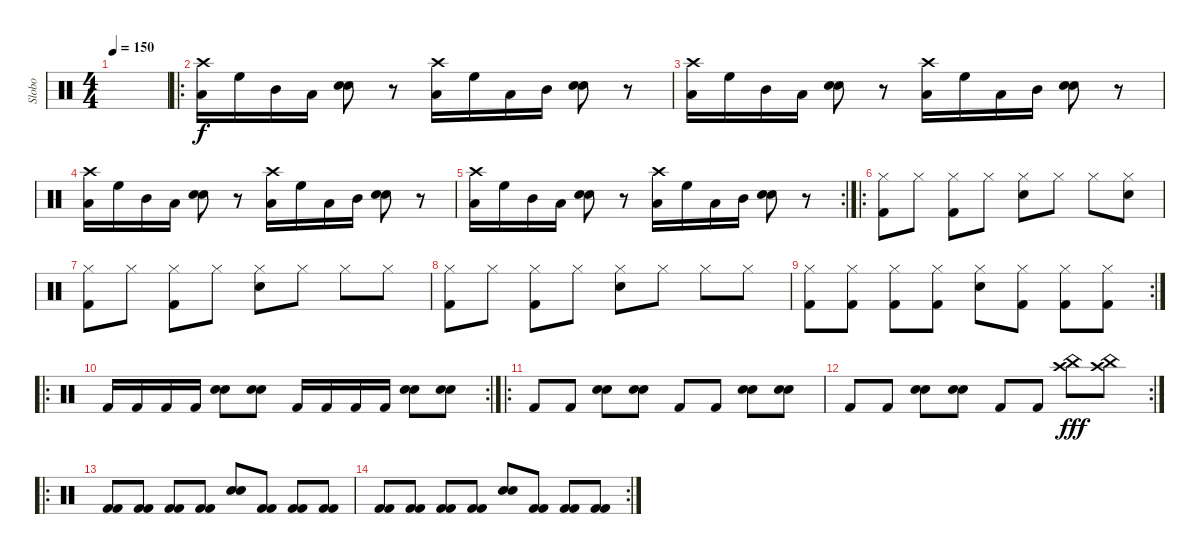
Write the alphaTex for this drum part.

\track ("Slobo" "Slobo") {instrument percussion}
\staff {score}
\articulation defaults
\ts (4 4)
\tempo 150
\clef neutral
\ks c
|
\ro
("Crash high (hit)" "Low Floor Tom (hit)").16{dy f} "High Floor Tom (hit)".16 "Mid Tom (hit)".16 "Low Tom (hit)".16 ("Snare (hit) 2" "Snare (hit) 2").8{bd 480} r.8 ("Crash high (hit)" "Low Floor Tom (hit)").16 "High Floor Tom (hit)".16 "Low Tom (hit)".16 "Mid Tom (hit)".16 ("Snare (hit) 2" "Snare (hit) 2").8{bd 480} r.8 |
("Crash high (hit)" "Low Floor Tom (hit)").16 "High Floor Tom (hit)".16 "Mid Tom (hit)".16 "Low Tom (hit)".16 ("Snare (hit) 2" "Snare (hit) 2").8{bd 480} r.8 ("Crash high (hit)" "Low Floor Tom (hit)").16 "High Floor Tom (hit)".16 "Low Tom (hit)".16 "Mid Tom (hit)".16 ("Snare (hit) 2" "Snare (hit) 2").8{bd 480} r.8 |
("Crash high (hit)" "Low Floor Tom (hit)").16 "High Floor Tom (hit)".16 "Mid Tom (hit)".16 "Low Tom (hit)".16 ("Snare (hit) 2" "Snare (hit) 2").8{bd 480} r.8 ("Crash high (hit)" "Low Floor Tom (hit)").16 "High Floor Tom (hit)".16 "Low Tom (hit)".16 "Mid Tom (hit)".16 ("Snare (hit) 2" "Snare (hit) 2").8{bd 480} r.8 |
\rc 2
("Crash high (hit)" "Low Floor Tom (hit)").16 "High Floor Tom (hit)".16 "Mid Tom (hit)".16 "Low Tom (hit)".16 ("Snare (hit) 2" "Snare (hit) 2").8{bd 480} r.8 ("Crash high (hit)" "Low Floor Tom (hit)").16 "High Floor Tom (hit)".16 "Low Tom (hit)".16 "Mid Tom (hit)".16 ("Snare (hit) 2" "Snare (hit) 2").8{bd 480} r.8 |
\ro
("Hi-Hat (closed)" "Kick (hit) 2").8 "Hi-Hat (closed)".8 ("Hi-Hat (closed)" "Kick (hit) 2").8 "Hi-Hat (closed)".8 ("Hi-Hat (closed)" "Snare (hit) 2").8 "Hi-Hat (closed)".8 "Hi-Hat (closed)".8 ("Hi-Hat (closed)" "Snare (hit) 2").8 |
("Hi-Hat (closed)" "Kick (hit) 2").8 "Hi-Hat (closed)".8 ("Hi-Hat (closed)" "Kick (hit) 2").8 "Hi-Hat (closed)".8 ("Hi-Hat (closed)" "Snare (hit) 2").8 "Hi-Hat (closed)".8 "Hi-Hat (closed)".8 "Hi-Hat (closed)".8 |
("Hi-Hat (closed)" "Kick (hit) 2").8 "Hi-Hat (closed)".8 ("Hi-Hat (closed)" "Kick (hit) 2").8 "Hi-Hat (closed)".8 ("Hi-Hat (closed)" "Snare (hit) 2").8 "Hi-Hat (closed)".8 "Hi-Hat (closed)".8 "Hi-Hat (closed)".8 |
\rc 2
("Hi-Hat (closed)" "Kick (hit) 2").8 ("Hi-Hat (closed)" "Kick (hit) 2").8 ("Hi-Hat (closed)" "Kick (hit) 2").8 ("Hi-Hat (closed)" "Kick (hit) 2").8 ("Hi-Hat (closed)" "Snare (hit) 2").8 ("Hi-Hat (closed)" "Kick (hit) 2").8 ("Hi-Hat (closed)" "Kick (hit) 2").8 ("Hi-Hat (closed)" "Kick (hit) 2").8 |
\ro
\rc 2 "Kick (hit) 2".16 "Kick (hit) 2".16 "Kick (hit) 2".16 "Kick (hit) 2".16
("Snare (hit) 2" "Snare (hit) 2").8{bd 480} ("Snare (hit) 2" "Snare (hit) 2").8{bd 480} "Kick (hit) 2".16 "Kick (hit) 2".16 "Kick (hit) 2".16 "Kick (hit) 2".16 ("Snare (hit) 2" "Snare (hit) 2").8{bd 480} ("Snare (hit) 2" "Snare (hit) 2").8{bd 480} |
\ro "Kick (hit) 2".8 "Kick (hit) 2".8
("Snare (hit) 2" "Snare (hit) 2").8{bd 480} ("Snare (hit) 2" "Snare (hit) 2").8{bd 480} "Kick (hit) 2".8 "Kick (hit) 2".8 ("Snare (hit) 2" "Snare (hit) 2").8{bd 480} ("Snare (hit) 2" "Snare (hit) 2").8{bd 480} |
\rc 2 "Kick (hit) 2".8 "Kick (hit) 2".8
("Snare (hit) 2" "Snare (hit) 2").8{bd 480} ("Snare (hit) 2" "Snare (hit) 2").8{bd 480} "Kick (hit) 2".8 "Kick (hit) 2".8 ("Crash high (hit)" "China (hit)").8{dy fff} ("Crash high (hit)" "China (hit)").8 |
\ro
("Kick (hit) 2" "Kick (hit) 2").8 ("Kick (hit) 2" "Kick (hit) 2").8 ("Kick (hit) 2" "Kick (hit) 2").8 ("Kick (hit) 2" "Kick (hit) 2").8 ("Snare (hit) 2" "Snare (hit) 2").8{bd 480} ("Kick (hit) 2" "Kick (hit) 2").8 ("Kick (hit) 2" "Kick (hit) 2").8 ("Kick (hit) 2" "Kick (hit) 2").8 |
\rc 2
("Kick (hit) 2" "Kick (hit) 2").8 ("Kick (hit) 2" "Kick (hit) 2").8 ("Kick (hit) 2" "Kick (hit) 2").8 ("Kick (hit) 2" "Kick (hit) 2").8 ("Snare (hit) 2" "Snare (hit) 2").8{bd 480} ("Kick (hit) 2" "Kick (hit) 2").8 ("Kick (hit) 2" "Kick (hit) 2").8 ("Kick (hit) 2" "Kick (hit) 2").8
